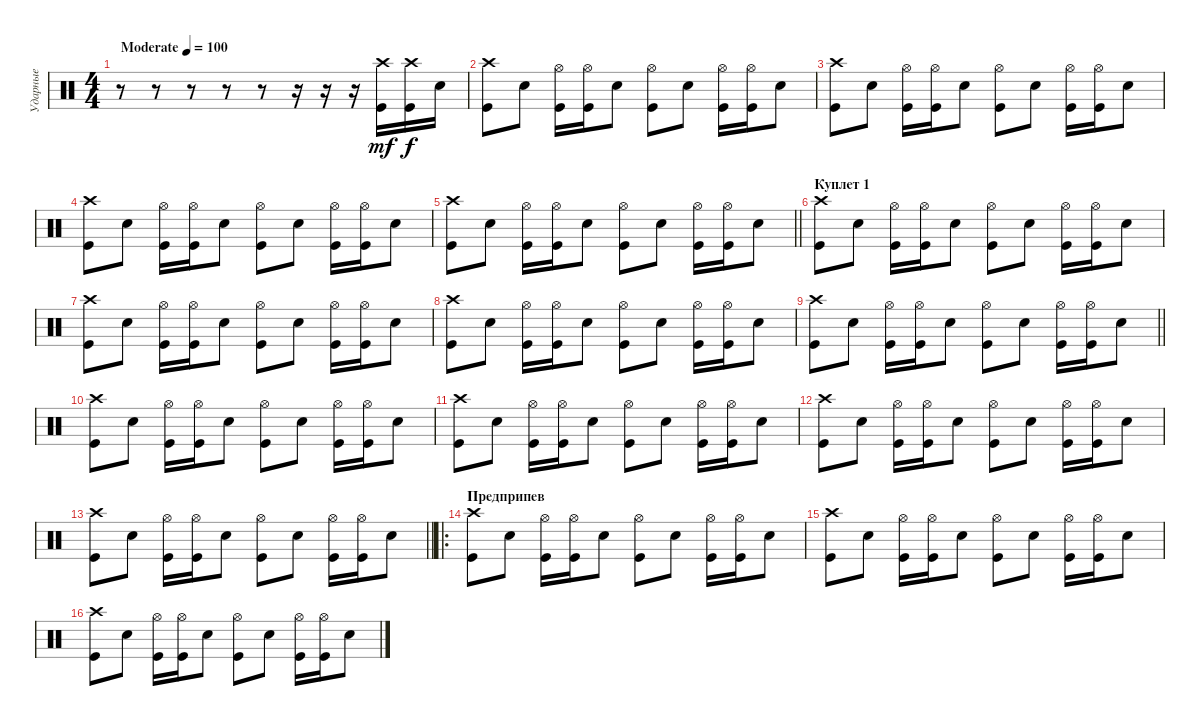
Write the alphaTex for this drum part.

\track ("Ударные" "Ударные") {instrument percussion}
\staff {score}
\articulation defaults
\ts (4 4)
\tempo (100 "Moderate")
\clef neutral
\ks c
r.8{dy mf} r.8 r.8 r.8 r.8 r.16 r.16 r.16 ("Crash high (hit)" "Kick (hit)").16 ("Crash high (hit)" "Kick (hit)").16{dy f} "Electric Snare (hit)".16 |
("Crash high (hit)" "Kick (hit)").8 "Electric Snare (hit)".8 ("Hi-Hat (open)" "Kick (hit)").16 ("Hi-Hat (open)" "Kick (hit)").16 "Electric Snare (hit)".8 ("Hi-Hat (open)" "Kick (hit)").8 "Electric Snare (hit)".8 ("Hi-Hat (open)" "Kick (hit)").16 ("Hi-Hat (open)" "Kick (hit)").16 "Electric Snare (hit)".8 |
("Crash high (hit)" "Kick (hit)").8 "Electric Snare (hit)".8 ("Hi-Hat (open)" "Kick (hit)").16 ("Hi-Hat (open)" "Kick (hit)").16 "Electric Snare (hit)".8 ("Hi-Hat (open)" "Kick (hit)").8 "Electric Snare (hit)".8 ("Hi-Hat (open)" "Kick (hit)").16 ("Hi-Hat (open)" "Kick (hit)").16 "Electric Snare (hit)".8 |
("Crash high (hit)" "Kick (hit)").8 "Electric Snare (hit)".8 ("Hi-Hat (open)" "Kick (hit)").16 ("Hi-Hat (open)" "Kick (hit)").16 "Electric Snare (hit)".8 ("Hi-Hat (open)" "Kick (hit)").8 "Electric Snare (hit)".8 ("Hi-Hat (open)" "Kick (hit)").16 ("Hi-Hat (open)" "Kick (hit)").16 "Electric Snare (hit)".8 |
\barLineRight lightlight
("Crash high (hit)" "Kick (hit)").8 "Electric Snare (hit)".8 ("Hi-Hat (open)" "Kick (hit)").16 ("Hi-Hat (open)" "Kick (hit)").16 "Electric Snare (hit)".8 ("Hi-Hat (open)" "Kick (hit)").8 "Electric Snare (hit)".8 ("Hi-Hat (open)" "Kick (hit)").16 ("Hi-Hat (open)" "Kick (hit)").16 "Electric Snare (hit)".8 |
\section ("" "Куплет 1")
("Crash high (hit)" "Kick (hit)").8 "Electric Snare (hit)".8 ("Hi-Hat (open)" "Kick (hit)").16 ("Hi-Hat (open)" "Kick (hit)").16 "Electric Snare (hit)".8 ("Hi-Hat (open)" "Kick (hit)").8 "Electric Snare (hit)".8 ("Hi-Hat (open)" "Kick (hit)").16 ("Hi-Hat (open)" "Kick (hit)").16 "Electric Snare (hit)".8 |
("Crash high (hit)" "Kick (hit)").8 "Electric Snare (hit)".8 ("Hi-Hat (open)" "Kick (hit)").16 ("Hi-Hat (open)" "Kick (hit)").16 "Electric Snare (hit)".8 ("Hi-Hat (open)" "Kick (hit)").8 "Electric Snare (hit)".8 ("Hi-Hat (open)" "Kick (hit)").16 ("Hi-Hat (open)" "Kick (hit)").16 "Electric Snare (hit)".8 |
("Crash high (hit)" "Kick (hit)").8 "Electric Snare (hit)".8 ("Hi-Hat (open)" "Kick (hit)").16 ("Hi-Hat (open)" "Kick (hit)").16 "Electric Snare (hit)".8 ("Hi-Hat (open)" "Kick (hit)").8 "Electric Snare (hit)".8 ("Hi-Hat (open)" "Kick (hit)").16 ("Hi-Hat (open)" "Kick (hit)").16 "Electric Snare (hit)".8 |
\barLineRight lightlight
("Crash high (hit)" "Kick (hit)").8 "Electric Snare (hit)".8 ("Hi-Hat (open)" "Kick (hit)").16 ("Hi-Hat (open)" "Kick (hit)").16 "Electric Snare (hit)".8 ("Hi-Hat (open)" "Kick (hit)").8 "Electric Snare (hit)".8 ("Hi-Hat (open)" "Kick (hit)").16 ("Hi-Hat (open)" "Kick (hit)").16 "Electric Snare (hit)".8 |
("Crash high (hit)" "Kick (hit)").8 "Electric Snare (hit)".8 ("Hi-Hat (open)" "Kick (hit)").16 ("Hi-Hat (open)" "Kick (hit)").16 "Electric Snare (hit)".8 ("Hi-Hat (open)" "Kick (hit)").8 "Electric Snare (hit)".8 ("Hi-Hat (open)" "Kick (hit)").16 ("Hi-Hat (open)" "Kick (hit)").16 "Electric Snare (hit)".8 |
("Crash high (hit)" "Kick (hit)").8 "Electric Snare (hit)".8 ("Hi-Hat (open)" "Kick (hit)").16 ("Hi-Hat (open)" "Kick (hit)").16 "Electric Snare (hit)".8 ("Hi-Hat (open)" "Kick (hit)").8 "Electric Snare (hit)".8 ("Hi-Hat (open)" "Kick (hit)").16 ("Hi-Hat (open)" "Kick (hit)").16 "Electric Snare (hit)".8 |
("Crash high (hit)" "Kick (hit)").8 "Electric Snare (hit)".8 ("Hi-Hat (open)" "Kick (hit)").16 ("Hi-Hat (open)" "Kick (hit)").16 "Electric Snare (hit)".8 ("Hi-Hat (open)" "Kick (hit)").8 "Electric Snare (hit)".8 ("Hi-Hat (open)" "Kick (hit)").16 ("Hi-Hat (open)" "Kick (hit)").16 "Electric Snare (hit)".8 |
\barLineRight lightlight
("Crash high (hit)" "Kick (hit)").8 "Electric Snare (hit)".8 ("Hi-Hat (open)" "Kick (hit)").16 ("Hi-Hat (open)" "Kick (hit)").16 "Electric Snare (hit)".8 ("Hi-Hat (open)" "Kick (hit)").8 "Electric Snare (hit)".8 ("Hi-Hat (open)" "Kick (hit)").16 ("Hi-Hat (open)" "Kick (hit)").16 "Electric Snare (hit)".8 |
\ro
\section ("" "Предприпев")
("Crash high (hit)" "Kick (hit)").8 "Electric Snare (hit)".8 ("Hi-Hat (open)" "Kick (hit)").16 ("Hi-Hat (open)" "Kick (hit)").16 "Electric Snare (hit)".8 ("Hi-Hat (open)" "Kick (hit)").8 "Electric Snare (hit)".8 ("Hi-Hat (open)" "Kick (hit)").16 ("Hi-Hat (open)" "Kick (hit)").16 "Electric Snare (hit)".8 |
("Crash high (hit)" "Kick (hit)").8 "Electric Snare (hit)".8 ("Hi-Hat (open)" "Kick (hit)").16 ("Hi-Hat (open)" "Kick (hit)").16 "Electric Snare (hit)".8 ("Hi-Hat (open)" "Kick (hit)").8 "Electric Snare (hit)".8 ("Hi-Hat (open)" "Kick (hit)").16 ("Hi-Hat (open)" "Kick (hit)").16 "Electric Snare (hit)".8 |
("Crash high (hit)" "Kick (hit)").8 "Electric Snare (hit)".8 ("Hi-Hat (open)" "Kick (hit)").16 ("Hi-Hat (open)" "Kick (hit)").16 "Electric Snare (hit)".8 ("Hi-Hat (open)" "Kick (hit)").8 "Electric Snare (hit)".8 ("Hi-Hat (open)" "Kick (hit)").16 ("Hi-Hat (open)" "Kick (hit)").16 "Electric Snare (hit)".8
